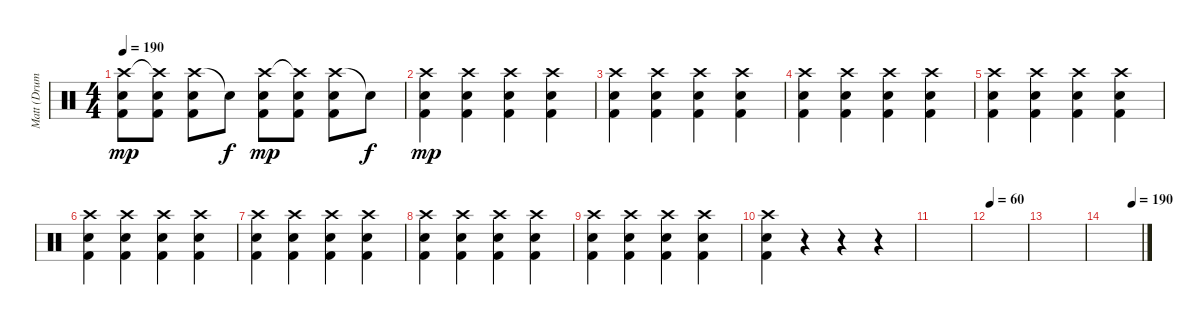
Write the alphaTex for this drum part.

\track ("Matt (Drums)" "Matt (Drum") {instrument percussion}
\staff {score}
\articulation defaults
\ts (4 4)
\tempo 190
\clef neutral
\ks c
("Crash high (hit)" "Snare (hit) 2" "Kick (hit) 2").8{dy mp} ("Crash high (hit)"{t} "Snare (hit) 2" "Kick (hit) 2").8 ("Crash high (hit)" "Snare (hit) 2" "Kick (hit) 2").8 "Snare (hit)"{t}.8{dy f} ("Crash high (hit)" "Snare (hit) 2" "Kick (hit) 2").8{dy mp} ("Crash high (hit)"{t} "Snare (hit) 2" "Kick (hit) 2").8 ("Crash high (hit)" "Snare (hit) 2" "Kick (hit) 2").8 "Snare (hit)"{t}.8{dy f} |
("Crash high (hit)" "Snare (hit) 2" "Kick (hit) 2").4{dy mp} ("Crash high (hit)" "Snare (hit) 2" "Kick (hit) 2").4 ("Crash high (hit)" "Snare (hit) 2" "Kick (hit) 2").4 ("Crash high (hit)" "Snare (hit) 2" "Kick (hit) 2").4 |
("Crash high (hit)" "Snare (hit) 2" "Kick (hit) 2").4 ("Crash high (hit)" "Snare (hit) 2" "Kick (hit) 2").4 ("Crash high (hit)" "Snare (hit) 2" "Kick (hit) 2").4 ("Crash high (hit)" "Snare (hit) 2" "Kick (hit) 2").4 |
("Crash high (hit)" "Snare (hit) 2" "Kick (hit) 2").4 ("Crash high (hit)" "Snare (hit) 2" "Kick (hit) 2").4 ("Crash high (hit)" "Snare (hit) 2" "Kick (hit) 2").4 ("Crash high (hit)" "Snare (hit) 2" "Kick (hit) 2").4 |
("Crash high (hit)" "Snare (hit) 2" "Kick (hit) 2").4 ("Crash high (hit)" "Snare (hit) 2" "Kick (hit) 2").4 ("Crash high (hit)" "Snare (hit) 2" "Kick (hit) 2").4 ("Crash high (hit)" "Snare (hit) 2" "Kick (hit) 2").4 |
("Crash high (hit)" "Snare (hit) 2" "Kick (hit) 2").4 ("Crash high (hit)" "Snare (hit) 2" "Kick (hit) 2").4 ("Crash high (hit)" "Snare (hit) 2" "Kick (hit) 2").4 ("Crash high (hit)" "Snare (hit) 2" "Kick (hit) 2").4 |
("Crash high (hit)" "Snare (hit) 2" "Kick (hit) 2").4 ("Crash high (hit)" "Snare (hit) 2" "Kick (hit) 2").4 ("Crash high (hit)" "Snare (hit) 2" "Kick (hit) 2").4 ("Crash high (hit)" "Snare (hit) 2" "Kick (hit) 2").4 |
("Crash high (hit)" "Snare (hit) 2" "Kick (hit) 2").4 ("Crash high (hit)" "Snare (hit) 2" "Kick (hit) 2").4 ("Crash high (hit)" "Snare (hit) 2" "Kick (hit) 2").4 ("Crash high (hit)" "Snare (hit) 2" "Kick (hit) 2").4 |
("Crash high (hit)" "Snare (hit) 2" "Kick (hit) 2").4 ("Crash high (hit)" "Snare (hit) 2" "Kick (hit) 2").4 ("Crash high (hit)" "Snare (hit) 2" "Kick (hit) 2").4 ("Crash high (hit)" "Snare (hit) 2" "Kick (hit) 2").4 |
("Crash high (hit)" "Snare (hit) 2" "Kick (hit) 2").4 r.4 r.4 r.4 |
|
\tempo 60
|
|
\tempo (190 0.75)
